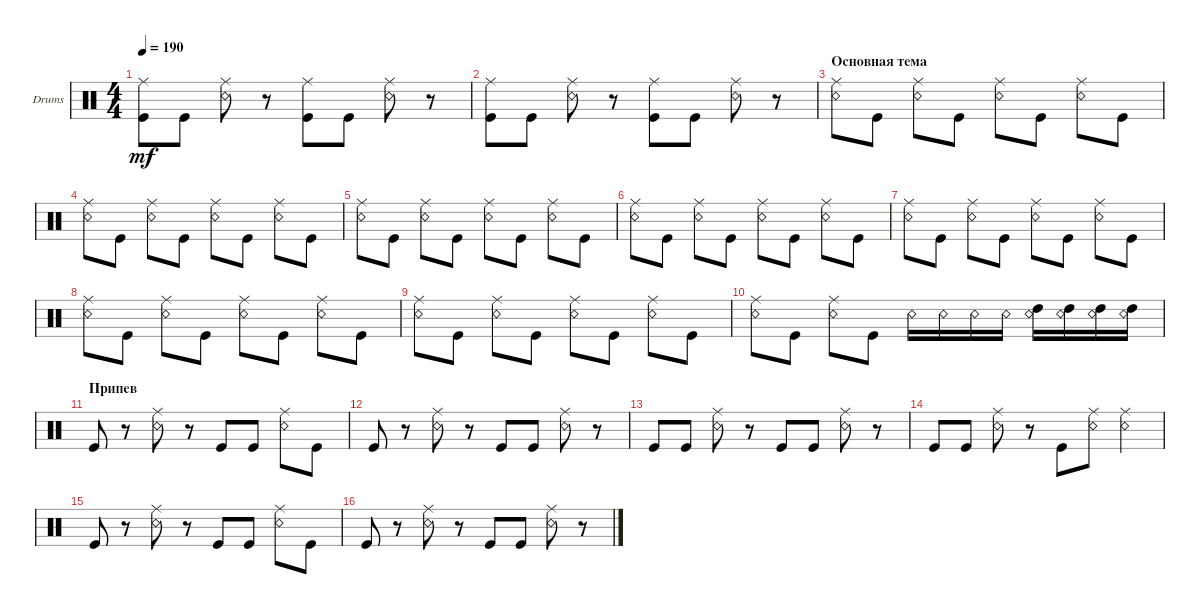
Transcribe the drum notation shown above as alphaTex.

\defaultSystemsLayout 4
\bracketExtendMode groupsimilarinstruments
\firstSystemTrackNameOrientation horizontal
\otherSystemsTrackNameOrientation horizontal
\track ("Drumkit" "Drums") {instrument percussion}
\staff {score}
\articulation defaults
\ts (4 4)
\tempo 190
\clef neutral
\ks c
("Kick (hit)" "Ride (middle)").8{dy mf} "Kick (hit)".8 ("Snare (rim shot)" "Ride (middle)").8 r.8 ("Kick (hit)" "Ride (middle)").8 "Kick (hit)".8 ("Snare (rim shot)" "Ride (middle)").8 r.8 |
("Kick (hit)" "Ride (middle)").8 "Kick (hit)".8 ("Snare (rim shot)" "Ride (middle)").8 r.8 ("Kick (hit)" "Ride (middle)").8 "Kick (hit)".8 ("Snare (rim shot)" "Ride (middle)").8 r.8 |
\section ("" "Основная тема")
("Snare (rim shot)" "Ride (middle)").8 "Kick (hit)".8 ("Snare (rim shot)" "Ride (middle)").8 "Kick (hit)".8 ("Snare (rim shot)" "Ride (middle)").8 "Kick (hit)".8 ("Snare (rim shot)" "Ride (middle)").8 "Kick (hit)".8 |
("Snare (rim shot)" "Ride (middle)").8 "Kick (hit)".8 ("Snare (rim shot)" "Ride (middle)").8 "Kick (hit)".8 ("Snare (rim shot)" "Ride (middle)").8 "Kick (hit)".8 ("Snare (rim shot)" "Ride (middle)").8 "Kick (hit)".8 |
("Snare (rim shot)" "Ride (middle)").8 "Kick (hit)".8 ("Snare (rim shot)" "Ride (middle)").8 "Kick (hit)".8 ("Snare (rim shot)" "Ride (middle)").8 "Kick (hit)".8 ("Snare (rim shot)" "Ride (middle)").8 "Kick (hit)".8 |
("Snare (rim shot)" "Ride (middle)").8 "Kick (hit)".8 ("Snare (rim shot)" "Ride (middle)").8 "Kick (hit)".8 ("Snare (rim shot)" "Ride (middle)").8 "Kick (hit)".8 ("Snare (rim shot)" "Ride (middle)").8 "Kick (hit)".8 |
("Snare (rim shot)" "Ride (middle)").8 "Kick (hit)".8 ("Snare (rim shot)" "Ride (middle)").8 "Kick (hit)".8 ("Snare (rim shot)" "Ride (middle)").8 "Kick (hit)".8 ("Snare (rim shot)" "Ride (middle)").8 "Kick (hit)".8 |
("Snare (rim shot)" "Ride (middle)").8 "Kick (hit)".8 ("Snare (rim shot)" "Ride (middle)").8 "Kick (hit)".8 ("Snare (rim shot)" "Ride (middle)").8 "Kick (hit)".8 ("Snare (rim shot)" "Ride (middle)").8 "Kick (hit)".8 |
("Snare (rim shot)" "Ride (middle)").8 "Kick (hit)".8 ("Snare (rim shot)" "Ride (middle)").8 "Kick (hit)".8 ("Snare (rim shot)" "Ride (middle)").8 "Kick (hit)".8 ("Snare (rim shot)" "Ride (middle)").8 "Kick (hit)".8 |
("Snare (rim shot)" "Ride (middle)").8 "Kick (hit)".8 ("Snare (rim shot)" "Ride (middle)").8 "Kick (hit)".8 "Snare (rim shot)".16 "Snare (rim shot)".16 "Snare (rim shot)".16 "Snare (rim shot)".16 ("High Tom (hit)" "Snare (rim shot)").16 ("High Tom (hit)" "Snare (rim shot)").16 ("High Tom (hit)" "Snare (rim shot)").16 ("High Tom (hit)" "Snare (rim shot)").16 |
\section ("" "Припев")
"Kick (hit)".8 r.8 ("Snare (rim shot)" "Ride (middle)").8 r.8 "Kick (hit)".8 "Kick (hit)".8 ("Snare (rim shot)" "Ride (middle)").8 "Kick (hit)".8 |
"Kick (hit)".8 r.8 ("Snare (rim shot)" "Ride (middle)").8 r.8 "Kick (hit)".8 "Kick (hit)".8 ("Snare (rim shot)" "Ride (middle)").8 r.8 |
"Kick (hit)".8 "Kick (hit)".8 ("Snare (rim shot)" "Ride (middle)").8 r.8 "Kick (hit)".8 "Kick (hit)".8 ("Snare (rim shot)" "Ride (middle)").8 r.8 |
"Kick (hit)".8 "Kick (hit)".8 ("Snare (rim shot)" "Ride (middle)").8 r.8 "Kick (hit)".8 ("Snare (rim shot)" "Ride (middle)").8 ("Snare (rim shot)" "Ride (middle)").4 |
"Kick (hit)".8 r.8 ("Snare (rim shot)" "Ride (middle)").8 r.8 "Kick (hit)".8 "Kick (hit)".8 ("Snare (rim shot)" "Ride (middle)").8 "Kick (hit)".8 |
"Kick (hit)".8 r.8 ("Snare (rim shot)" "Ride (middle)").8 r.8 "Kick (hit)".8 "Kick (hit)".8 ("Snare (rim shot)" "Ride (middle)").8 r.8
